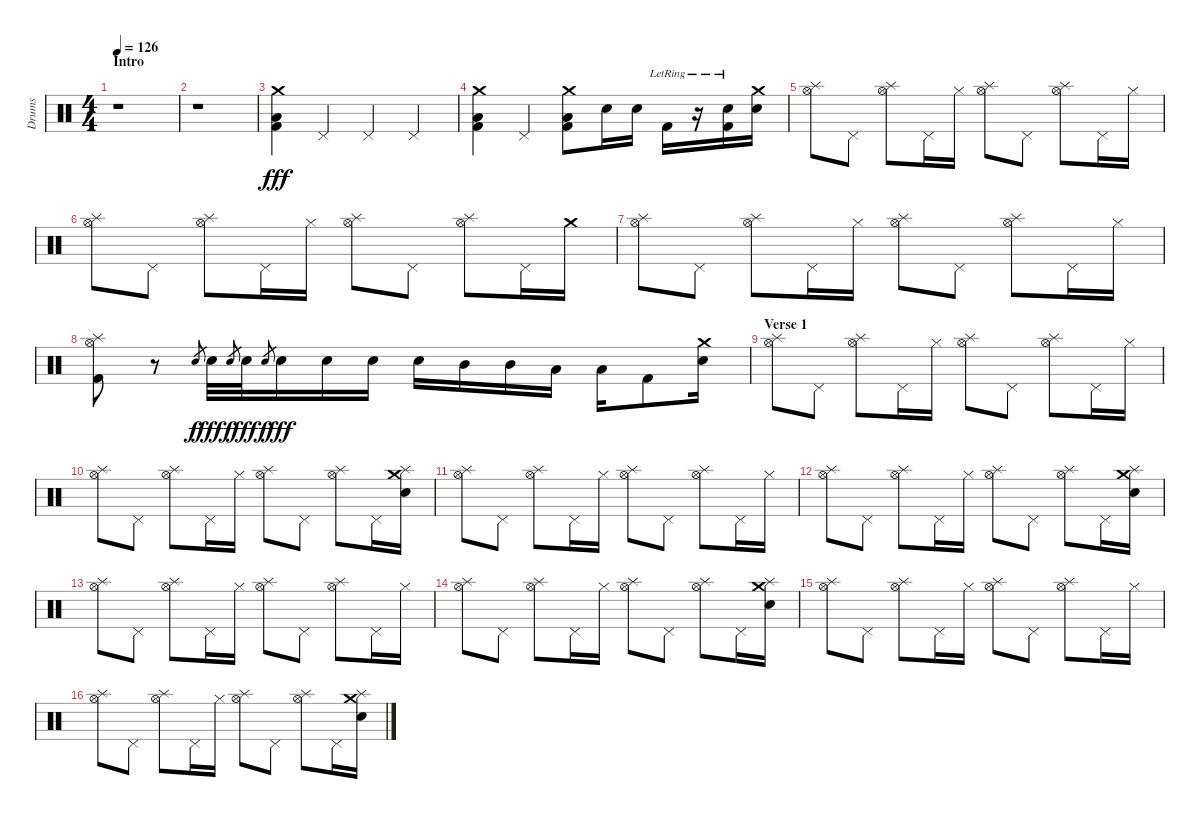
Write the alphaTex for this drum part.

\track ("Drums" "Drums") {instrument percussion}
\staff {score}
\articulation defaults
\ts (4 4)
\section ("" "Intro")
\tempo 126
\clef neutral
\ks c
r.1{dy fff} |
r.1 |
("Crash medium (hit)" "Low Floor Tom (hit)" "Kick (hit) 2").4 "Pedal Hi-Hat (hit)".4 "Pedal Hi-Hat (hit)".4 "Pedal Hi-Hat (hit)".4 |
("Crash medium (hit)" "Low Floor Tom (hit)" "Kick (hit) 2").4 "Pedal Hi-Hat (hit)".4 ("Crash medium (hit)" "Low Floor Tom (hit)" "Kick (hit) 2").8 "Electric Snare (hit)".16 "Electric Snare (hit)".16 "Kick (hit) 2"{lr}.16 r.16 ("Electric Snare (hit)" "Kick (hit) 2"{lr}).16 ("Crash medium (hit)" "Electric Snare (hit)").16 |
("Hi-Hat (open)" "Splash (hit)").8 "Pedal Hi-Hat (hit)".8 ("Hi-Hat (open)" "Splash (hit)").8 "Pedal Hi-Hat (hit)".16 "Hi-Hat (closed)".16 ("Hi-Hat (open)" "Splash (hit)").8 "Pedal Hi-Hat (hit)".8 ("Hi-Hat (open)" "Splash (hit)").8 "Pedal Hi-Hat (hit)".16 "Hi-Hat (closed)".16 |
("Hi-Hat (open)" "Splash (hit)").8 "Pedal Hi-Hat (hit)".8 ("Hi-Hat (open)" "Splash (hit)").8 "Pedal Hi-Hat (hit)".16 "Hi-Hat (closed)".16 ("Hi-Hat (open)" "Splash (hit)").8 "Pedal Hi-Hat (hit)".8 ("Hi-Hat (open)" "Splash (hit)").8 "Pedal Hi-Hat (hit)".16 "Crash medium (hit)".16 |
("Hi-Hat (open)" "Splash (hit)").8 "Pedal Hi-Hat (hit)".8 ("Hi-Hat (open)" "Splash (hit)").8 "Pedal Hi-Hat (hit)".16 "Hi-Hat (closed)".16 ("Hi-Hat (open)" "Splash (hit)").8 "Pedal Hi-Hat (hit)".8 ("Hi-Hat (open)" "Splash (hit)").8 "Pedal Hi-Hat (hit)".16 "Hi-Hat (closed)".16 |
("Hi-Hat (open)" "Splash (hit)" "Kick (hit) 2").8 r.8 "Electric Snare (hit)".8{gr dy f} "Electric Snare (hit)".32{dy fff} "Electric Snare (hit)".8{gr dy f} "Electric Snare (hit)".32{dy fff} "Electric Snare (hit)".8{gr dy f} "Electric Snare (hit)".16{dy fff} "Electric Snare (hit)".16 "Electric Snare (hit)".16 "Electric Snare (hit)".16 "Mid Tom (hit)".16 "Mid Tom (hit)".16 "Low Tom (hit)".16 "Low Tom (hit)".16 "Kick (hit) 2".8 ("Crash medium (hit)" "Electric Snare (hit)").16 |
\section ("" "Verse 1")
("Hi-Hat (open)" "Splash (hit)").8 "Pedal Hi-Hat (hit)".8 ("Hi-Hat (open)" "Splash (hit)").8 "Pedal Hi-Hat (hit)".16 "Hi-Hat (closed)".16 ("Hi-Hat (open)" "Splash (hit)").8 "Pedal Hi-Hat (hit)".8 ("Hi-Hat (open)" "Splash (hit)").8 "Pedal Hi-Hat (hit)".16 "Hi-Hat (closed)".16 |
("Hi-Hat (open)" "Splash (hit)").8 "Pedal Hi-Hat (hit)".8 ("Hi-Hat (open)" "Splash (hit)").8 "Pedal Hi-Hat (hit)".16 "Hi-Hat (closed)".16 ("Hi-Hat (open)" "Splash (hit)").8 "Pedal Hi-Hat (hit)".8 ("Hi-Hat (open)" "Splash (hit)").8 "Pedal Hi-Hat (hit)".16 ("Crash medium (hit)" "Splash (hit)" "Electric Snare (hit)").16 |
("Hi-Hat (open)" "Splash (hit)").8 "Pedal Hi-Hat (hit)".8 ("Hi-Hat (open)" "Splash (hit)").8 "Pedal Hi-Hat (hit)".16 "Hi-Hat (closed)".16 ("Hi-Hat (open)" "Splash (hit)").8 "Pedal Hi-Hat (hit)".8 ("Hi-Hat (open)" "Splash (hit)").8 "Pedal Hi-Hat (hit)".16 "Hi-Hat (closed)".16 |
("Hi-Hat (open)" "Splash (hit)").8 "Pedal Hi-Hat (hit)".8 ("Hi-Hat (open)" "Splash (hit)").8 "Pedal Hi-Hat (hit)".16 "Hi-Hat (closed)".16 ("Hi-Hat (open)" "Splash (hit)").8 "Pedal Hi-Hat (hit)".8 ("Hi-Hat (open)" "Splash (hit)").8 "Pedal Hi-Hat (hit)".16 ("Crash medium (hit)" "Splash (hit)" "Electric Snare (hit)").16 |
("Hi-Hat (open)" "Splash (hit)").8 "Pedal Hi-Hat (hit)".8 ("Hi-Hat (open)" "Splash (hit)").8 "Pedal Hi-Hat (hit)".16 "Hi-Hat (closed)".16 ("Hi-Hat (open)" "Splash (hit)").8 "Pedal Hi-Hat (hit)".8 ("Hi-Hat (open)" "Splash (hit)").8 "Pedal Hi-Hat (hit)".16 "Hi-Hat (closed)".16 |
("Hi-Hat (open)" "Splash (hit)").8 "Pedal Hi-Hat (hit)".8 ("Hi-Hat (open)" "Splash (hit)").8 "Pedal Hi-Hat (hit)".16 "Hi-Hat (closed)".16 ("Hi-Hat (open)" "Splash (hit)").8 "Pedal Hi-Hat (hit)".8 ("Hi-Hat (open)" "Splash (hit)").8 "Pedal Hi-Hat (hit)".16 ("Crash medium (hit)" "Splash (hit)" "Electric Snare (hit)").16 |
("Hi-Hat (open)" "Splash (hit)").8 "Pedal Hi-Hat (hit)".8 ("Hi-Hat (open)" "Splash (hit)").8 "Pedal Hi-Hat (hit)".16 "Hi-Hat (closed)".16 ("Hi-Hat (open)" "Splash (hit)").8 "Pedal Hi-Hat (hit)".8 ("Hi-Hat (open)" "Splash (hit)").8 "Pedal Hi-Hat (hit)".16 "Hi-Hat (closed)".16 |
("Hi-Hat (open)" "Splash (hit)").8 "Pedal Hi-Hat (hit)".8 ("Hi-Hat (open)" "Splash (hit)").8 "Pedal Hi-Hat (hit)".16 "Hi-Hat (closed)".16 ("Hi-Hat (open)" "Splash (hit)").8 "Pedal Hi-Hat (hit)".8 ("Hi-Hat (open)" "Splash (hit)").8 "Pedal Hi-Hat (hit)".16 ("Crash medium (hit)" "Splash (hit)" "Electric Snare (hit)").16
